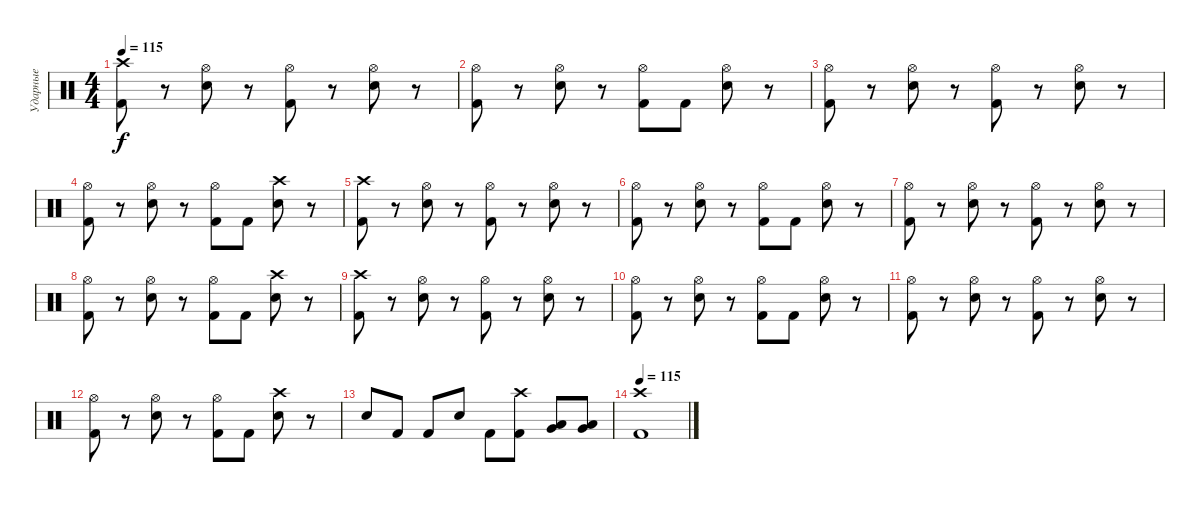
\track ("Ударные" "Ударные") {instrument percussion}
\staff {score}
\articulation defaults
\ts (4 4)
\tempo 115
\clef neutral
\ks c
("Kick (hit) 2" "Crash high (hit)").8{dy f} r.8 ("Hi-Hat (open)" "Electric Snare (hit)").8 r.8 ("Kick (hit) 2" "Hi-Hat (open)").8 r.8 ("Hi-Hat (open)" "Electric Snare (hit)").8 r.8 |
("Kick (hit) 2" "Hi-Hat (open)").8 r.8 ("Hi-Hat (open)" "Electric Snare (hit)").8 r.8 ("Kick (hit) 2" "Hi-Hat (open)").8 "Kick (hit) 2".8 ("Hi-Hat (open)" "Electric Snare (hit)").8 r.8 |
("Kick (hit) 2" "Hi-Hat (open)").8 r.8 ("Hi-Hat (open)" "Electric Snare (hit)").8 r.8 ("Kick (hit) 2" "Hi-Hat (open)").8 r.8 ("Hi-Hat (open)" "Electric Snare (hit)").8 r.8 |
("Kick (hit) 2" "Hi-Hat (open)").8 r.8 ("Hi-Hat (open)" "Electric Snare (hit)").8 r.8 ("Kick (hit) 2" "Hi-Hat (open)").8 "Kick (hit) 2".8 ("Crash high (hit)" "Electric Snare (hit)").8 r.8 |
("Kick (hit) 2" "Crash high (hit)").8 r.8 ("Hi-Hat (open)" "Electric Snare (hit)").8 r.8 ("Kick (hit) 2" "Hi-Hat (open)").8 r.8 ("Hi-Hat (open)" "Electric Snare (hit)").8 r.8 |
("Kick (hit) 2" "Hi-Hat (open)").8 r.8 ("Hi-Hat (open)" "Electric Snare (hit)").8 r.8 ("Kick (hit) 2" "Hi-Hat (open)").8 "Kick (hit) 2".8 ("Hi-Hat (open)" "Electric Snare (hit)").8 r.8 |
("Kick (hit) 2" "Hi-Hat (open)").8 r.8 ("Hi-Hat (open)" "Electric Snare (hit)").8 r.8 ("Kick (hit) 2" "Hi-Hat (open)").8 r.8 ("Hi-Hat (open)" "Electric Snare (hit)").8 r.8 |
("Kick (hit) 2" "Hi-Hat (open)").8 r.8 ("Hi-Hat (open)" "Electric Snare (hit)").8 r.8 ("Kick (hit) 2" "Hi-Hat (open)").8 "Kick (hit) 2".8 ("Crash high (hit)" "Electric Snare (hit)").8 r.8 |
("Kick (hit) 2" "Crash high (hit)").8 r.8 ("Hi-Hat (open)" "Electric Snare (hit)").8 r.8 ("Kick (hit) 2" "Hi-Hat (open)").8 r.8 ("Hi-Hat (open)" "Electric Snare (hit)").8 r.8 |
("Kick (hit) 2" "Hi-Hat (open)").8 r.8 ("Hi-Hat (open)" "Electric Snare (hit)").8 r.8 ("Kick (hit) 2" "Hi-Hat (open)").8 "Kick (hit) 2".8 ("Hi-Hat (open)" "Electric Snare (hit)").8 r.8 |
("Kick (hit) 2" "Hi-Hat (open)").8 r.8 ("Hi-Hat (open)" "Electric Snare (hit)").8 r.8 ("Kick (hit) 2" "Hi-Hat (open)").8 r.8 ("Hi-Hat (open)" "Electric Snare (hit)").8 r.8 |
("Kick (hit) 2" "Hi-Hat (open)").8 r.8 ("Hi-Hat (open)" "Electric Snare (hit)").8 r.8 ("Kick (hit) 2" "Hi-Hat (open)").8 "Kick (hit) 2".8 ("Crash high (hit)" "Electric Snare (hit)").8 r.8 |
"Electric Snare (hit)".8 "Kick (hit) 2".8 "Kick (hit) 2".8 "Electric Snare (hit)".8 "Kick (hit) 2".8 ("Kick (hit) 2" "Crash high (hit)").8 ("Low Tom (hit)" "Very Low Tom (hit)").8 ("Low Tom (hit)" "Very Low Tom (hit)").8 |
\tempo 115
("Kick (hit) 2" "Crash high (hit)").1
